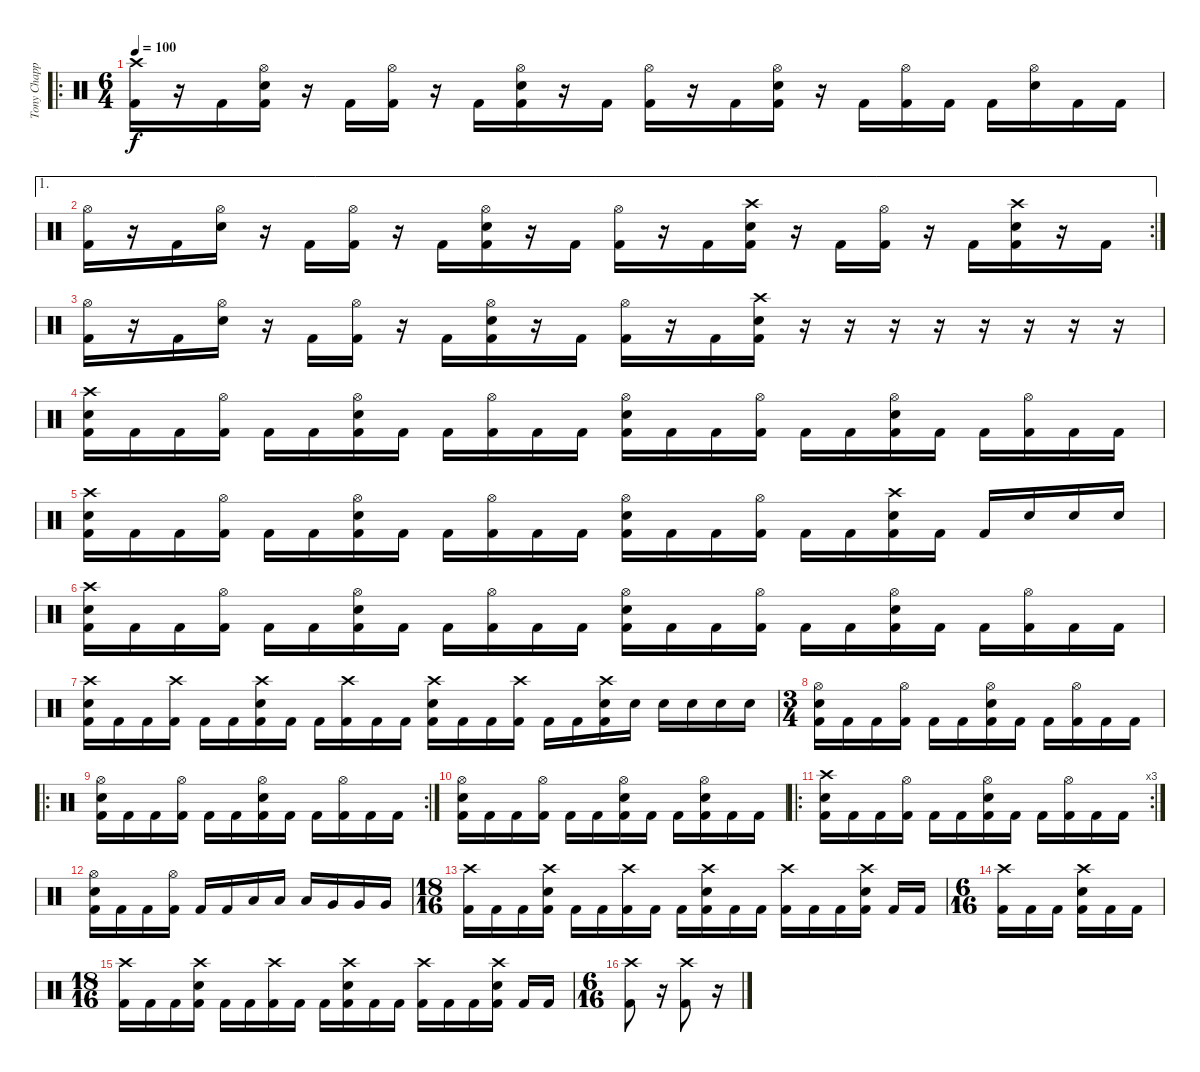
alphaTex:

\track ("Tony Chappelle: Drums" "Tony Chapp") {instrument percussion}
\staff {score}
\articulation defaults
\ro
\ts (6 4)
\tempo 100
\clef neutral
\ks c
("Crash high (hit)" "Kick (hit) 2").16{dy f} r.16 "Kick (hit) 2".16 ("Electric Snare (hit)" "Hi-Hat (open)" "Kick (hit) 2").16 r.16 "Kick (hit) 2".16 ("Kick (hit) 2" "Hi-Hat (open)").16 r.16 "Kick (hit) 2".16 ("Electric Snare (hit)" "Hi-Hat (open)" "Kick (hit) 2").16 r.16 "Kick (hit) 2".16 ("Hi-Hat (open)" "Kick (hit) 2").16 r.16 "Kick (hit) 2".16 ("Electric Snare (hit)" "Hi-Hat (open)" "Kick (hit) 2").16 r.16 "Kick (hit) 2".16 ("Kick (hit) 2" "Hi-Hat (open)").16 "Kick (hit) 2".16 "Kick (hit) 2".16 ("Hi-Hat (open)" "Electric Snare (hit)").16 "Kick (hit) 2".16 "Kick (hit) 2".16 |
\ae 1
\rc 2
("Hi-Hat (open)" "Kick (hit) 2").16 r.16 "Kick (hit) 2".16 ("Hi-Hat (open)" "Electric Snare (hit)").16 r.16 "Kick (hit) 2".16 ("Kick (hit) 2" "Hi-Hat (open)").16 r.16 "Kick (hit) 2".16 ("Electric Snare (hit)" "Hi-Hat (open)" "Kick (hit) 2").16 r.16 "Kick (hit) 2".16 ("Hi-Hat (open)" "Kick (hit) 2").16 r.16 "Kick (hit) 2".16 ("Crash high (hit)" "Electric Snare (hit)" "Kick (hit) 2").16 r.16 "Kick (hit) 2".16 ("Hi-Hat (open)" "Kick (hit) 2").16 r.16 "Kick (hit) 2".16 ("Electric Snare (hit)" "Crash high (hit)" "Kick (hit) 2").16 r.16 "Kick (hit) 2".16 |
("Hi-Hat (open)" "Kick (hit) 2").16 r.16 "Kick (hit) 2".16 ("Hi-Hat (open)" "Electric Snare (hit)").16 r.16 "Kick (hit) 2".16 ("Kick (hit) 2" "Hi-Hat (open)").16 r.16 "Kick (hit) 2".16 ("Electric Snare (hit)" "Hi-Hat (open)" "Kick (hit) 2").16 r.16 "Kick (hit) 2".16 ("Hi-Hat (open)" "Kick (hit) 2").16 r.16 "Kick (hit) 2".16 ("Crash high (hit)" "Electric Snare (hit)" "Kick (hit) 2").16 r.16 r.16 r.16 r.16 r.16 r.16 r.16 r.16 |
("Crash high (hit)" "Electric Snare (hit)" "Kick (hit) 2").16 "Kick (hit) 2".16 "Kick (hit) 2".16 ("Hi-Hat (open)" "Kick (hit) 2").16 "Kick (hit) 2".16 "Kick (hit) 2".16 ("Hi-Hat (open)" "Electric Snare (hit)" "Kick (hit) 2").16 "Kick (hit) 2".16 "Kick (hit) 2".16 ("Hi-Hat (open)" "Kick (hit) 2").16 "Kick (hit) 2".16 "Kick (hit) 2".16 ("Hi-Hat (open)" "Electric Snare (hit)" "Kick (hit) 2").16 "Kick (hit) 2".16 "Kick (hit) 2".16 ("Hi-Hat (open)" "Kick (hit) 2").16 "Kick (hit) 2".16 "Kick (hit) 2".16 ("Hi-Hat (open)" "Electric Snare (hit)" "Kick (hit) 2").16 "Kick (hit) 2".16 "Kick (hit) 2".16 ("Hi-Hat (open)" "Kick (hit) 2").16 "Kick (hit) 2".16 "Kick (hit) 2".16 |
("Crash high (hit)" "Electric Snare (hit)" "Kick (hit) 2").16 "Kick (hit) 2".16 "Kick (hit) 2".16 ("Hi-Hat (open)" "Kick (hit) 2").16 "Kick (hit) 2".16 "Kick (hit) 2".16 ("Hi-Hat (open)" "Electric Snare (hit)" "Kick (hit) 2").16 "Kick (hit) 2".16 "Kick (hit) 2".16 ("Hi-Hat (open)" "Kick (hit) 2").16 "Kick (hit) 2".16 "Kick (hit) 2".16 ("Hi-Hat (open)" "Electric Snare (hit)" "Kick (hit) 2").16 "Kick (hit) 2".16 "Kick (hit) 2".16 ("Hi-Hat (open)" "Kick (hit) 2").16 "Kick (hit) 2".16 "Kick (hit) 2".16 ("Crash high (hit)" "Electric Snare (hit)" "Kick (hit) 2").16 "Kick (hit) 2".16 "Kick (hit) 2".16 "Electric Snare (hit)".16 "Electric Snare (hit)".16 "Electric Snare (hit)".16 |
("Crash high (hit)" "Electric Snare (hit)" "Kick (hit) 2").16 "Kick (hit) 2".16 "Kick (hit) 2".16 ("Hi-Hat (open)" "Kick (hit) 2").16 "Kick (hit) 2".16 "Kick (hit) 2".16 ("Hi-Hat (open)" "Electric Snare (hit)" "Kick (hit) 2").16 "Kick (hit) 2".16 "Kick (hit) 2".16 ("Hi-Hat (open)" "Kick (hit) 2").16 "Kick (hit) 2".16 "Kick (hit) 2".16 ("Hi-Hat (open)" "Electric Snare (hit)" "Kick (hit) 2").16 "Kick (hit) 2".16 "Kick (hit) 2".16 ("Hi-Hat (open)" "Kick (hit) 2").16 "Kick (hit) 2".16 "Kick (hit) 2".16 ("Hi-Hat (open)" "Electric Snare (hit)" "Kick (hit) 2").16 "Kick (hit) 2".16 "Kick (hit) 2".16 ("Hi-Hat (open)" "Kick (hit) 2").16 "Kick (hit) 2".16 "Kick (hit) 2".16 |
("Crash high (hit)" "Electric Snare (hit)" "Kick (hit) 2").16 "Kick (hit) 2".16 "Kick (hit) 2".16 ("Crash high (hit)" "Kick (hit) 2").16 "Kick (hit) 2".16 "Kick (hit) 2".16 ("Crash high (hit)" "Electric Snare (hit)" "Kick (hit) 2").16 "Kick (hit) 2".16 "Kick (hit) 2".16 ("Crash high (hit)" "Kick (hit) 2").16 "Kick (hit) 2".16 "Kick (hit) 2".16 ("Crash high (hit)" "Electric Snare (hit)" "Kick (hit) 2").16 "Kick (hit) 2".16 "Kick (hit) 2".16 ("Crash high (hit)" "Kick (hit) 2").16 "Kick (hit) 2".16 "Kick (hit) 2".16 ("Crash high (hit)" "Electric Snare (hit)" "Kick (hit) 2").16 "Electric Snare (hit)".16 "Electric Snare (hit)".16 "Electric Snare (hit)".16 "Electric Snare (hit)".16 "Electric Snare (hit)".16 |
\ts (3 4)
("Hi-Hat (open)" "Electric Snare (hit)" "Kick (hit) 2").16 "Kick (hit) 2".16 "Kick (hit) 2".16 ("Hi-Hat (open)" "Kick (hit) 2").16 "Kick (hit) 2".16 "Kick (hit) 2".16 ("Hi-Hat (open)" "Electric Snare (hit)" "Kick (hit) 2").16 "Kick (hit) 2".16 "Kick (hit) 2".16 ("Hi-Hat (open)" "Kick (hit) 2").16 "Kick (hit) 2".16 "Kick (hit) 2".16 |
\ro
\rc 2
("Hi-Hat (open)" "Electric Snare (hit)" "Kick (hit) 2").16 "Kick (hit) 2".16 "Kick (hit) 2".16 ("Hi-Hat (open)" "Kick (hit) 2").16 "Kick (hit) 2".16 "Kick (hit) 2".16 ("Hi-Hat (open)" "Electric Snare (hit)" "Kick (hit) 2").16 "Kick (hit) 2".16 "Kick (hit) 2".16 ("Hi-Hat (open)" "Kick (hit) 2").16 "Kick (hit) 2".16 "Kick (hit) 2".16 |
("Hi-Hat (open)" "Electric Snare (hit)" "Kick (hit) 2").16 "Kick (hit) 2".16 "Kick (hit) 2".16 ("Hi-Hat (open)" "Kick (hit) 2").16 "Kick (hit) 2".16 "Kick (hit) 2".16 ("Hi-Hat (open)" "Electric Snare (hit)" "Kick (hit) 2").16 "Kick (hit) 2".16 "Kick (hit) 2".16 ("Hi-Hat (open)" "Electric Snare (hit)" "Kick (hit) 2").16 "Kick (hit) 2".16 "Kick (hit) 2".16 |
\ro
\rc 3
("Crash high (hit)" "Electric Snare (hit)" "Kick (hit) 2").16 "Kick (hit) 2".16 "Kick (hit) 2".16 ("Hi-Hat (open)" "Kick (hit) 2").16 "Kick (hit) 2".16 "Kick (hit) 2".16 ("Hi-Hat (open)" "Electric Snare (hit)" "Kick (hit) 2").16 "Kick (hit) 2".16 "Kick (hit) 2".16 ("Hi-Hat (open)" "Kick (hit) 2").16 "Kick (hit) 2".16 "Kick (hit) 2".16 |
("Hi-Hat (open)" "Electric Snare (hit)" "Kick (hit) 2").16 "Kick (hit) 2".16 "Kick (hit) 2".16 ("Hi-Hat (open)" "Kick (hit) 2").16 "Kick (hit) 2".16 "Kick (hit) 2".16 "Low Tom (hit)".16 "Low Tom (hit)".16 "Low Tom (hit)".16 "Very Low Tom (hit)".16 "Very Low Tom (hit)".16 "Very Low Tom (hit)".16 |
\ts (18 16)
("Crash high (hit)" "Kick (hit) 2").16 "Kick (hit) 2".16 "Kick (hit) 2".16 ("Electric Snare (hit)" "Crash high (hit)" "Kick (hit) 2").16 "Kick (hit) 2".16 "Kick (hit) 2".16 ("Crash high (hit)" "Kick (hit) 2").16 "Kick (hit) 2".16 "Kick (hit) 2".16 ("Electric Snare (hit)" "Crash high (hit)" "Kick (hit) 2").16 "Kick (hit) 2".16 "Kick (hit) 2".16 ("Crash high (hit)" "Kick (hit) 2").16 "Kick (hit) 2".16 "Kick (hit) 2".16 ("Electric Snare (hit)" "Crash high (hit)" "Kick (hit) 2").16 "Kick (hit) 2".16 "Kick (hit) 2".16 |
\ts (6 16)
("Crash high (hit)" "Kick (hit) 2").16 "Kick (hit) 2".16 "Kick (hit) 2".16 ("Electric Snare (hit)" "Crash high (hit)" "Kick (hit) 2").16 "Kick (hit) 2".16 "Kick (hit) 2".16 |
\ts (18 16)
("Crash high (hit)" "Kick (hit) 2").16 "Kick (hit) 2".16 "Kick (hit) 2".16 ("Electric Snare (hit)" "Crash high (hit)" "Kick (hit) 2").16 "Kick (hit) 2".16 "Kick (hit) 2".16 ("Crash high (hit)" "Kick (hit) 2").16 "Kick (hit) 2".16 "Kick (hit) 2".16 ("Electric Snare (hit)" "Crash high (hit)" "Kick (hit) 2").16 "Kick (hit) 2".16 "Kick (hit) 2".16 ("Crash high (hit)" "Kick (hit) 2").16 "Kick (hit) 2".16 "Kick (hit) 2".16 ("Electric Snare (hit)" "Crash high (hit)" "Kick (hit) 2").16 "Kick (hit) 2".16 "Kick (hit) 2".16 |
\ts (6 16)
("Crash high (hit)" "Kick (hit) 2").8 r.16 ("Crash high (hit)" "Kick (hit) 2").8 r.16
